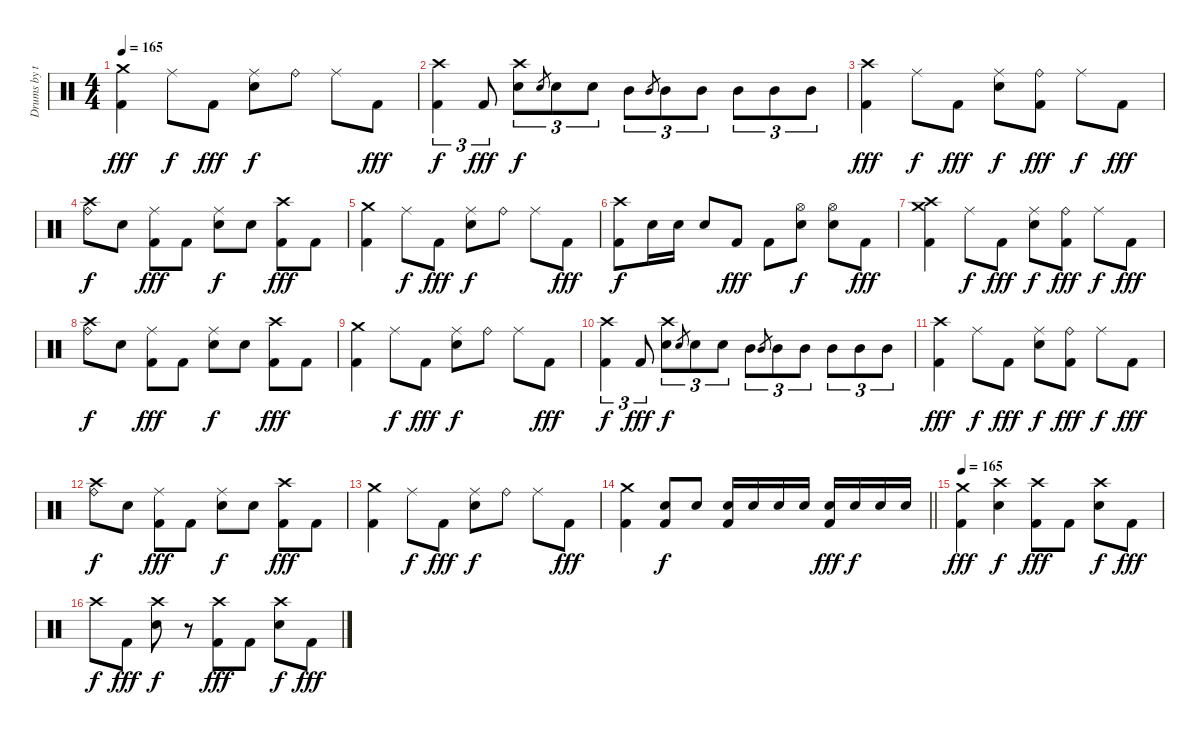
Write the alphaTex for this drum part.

\track ("Drums by terryn0" "Drums by t") {instrument percussion}
\staff {score}
\articulation defaults
\ts (4 4)
\tempo 165
\clef neutral
\ks c
("Crash medium (hit)" "Kick (hit) 2").4{dy fff} "Ride (middle)".8{dy f} "Kick (hit) 2".8{dy fff} ("Ride (middle)" "Electric Snare (hit)").8{dy f} "Ride (bell)".8 "Ride (middle)".8 "Kick (hit) 2".8{dy fff} |
("Crash high (hit)" "Kick (hit) 2").4{tu (3 2) dy f} "Kick (hit) 2".8{tu (3 2) dy fff} ("Crash high (hit)" "Electric Snare (hit)").8{tu (3 2) dy f} "Electric Snare (hit)".8{gr} "Electric Snare (hit)".8{tu (3 2)} "Electric Snare (hit)".8{tu (3 2)} "Mid Tom (hit)".8{tu (3 2)} "Mid Tom (hit)".8{gr} "Mid Tom (hit)".8{tu (3 2)} "Mid Tom (hit)".8{tu (3 2)} "Mid Tom (hit)".8{tu (3 2)} "Mid Tom (hit)".8{tu (3 2)} "Mid Tom (hit)".8{tu (3 2)} |
("Crash high (hit)" "Kick (hit) 2").4{dy fff} "Ride (middle)".8{dy f} "Kick (hit) 2".8{dy fff} ("Ride (middle)" "Electric Snare (hit)").8{dy f} ("Ride (bell)" "Kick (hit) 2").8{dy fff} "Ride (middle)".8{dy f} "Kick (hit) 2".8{dy fff} |
("Ride (bell)" "Crash high (hit)").8{dy f} "Electric Snare (hit)".8 ("Ride (middle)" "Kick (hit) 2").8{dy fff} "Kick (hit) 2".8 ("Ride (middle)" "Electric Snare (hit)").8{dy f} "Electric Snare (hit)".8 ("Crash high (hit)" "Kick (hit) 2").8{dy fff} "Kick (hit) 2".8 |
("Crash medium (hit)" "Kick (hit) 2").4 "Ride (middle)".8{dy f} "Kick (hit) 2".8{dy fff} ("Ride (middle)" "Electric Snare (hit)").8{dy f} "Ride (bell)".8 "Ride (middle)".8 "Kick (hit) 2".8{dy fff} |
("Crash high (hit)" "Kick (hit) 2").8{dy f} "Electric Snare (hit)".16 "Electric Snare (hit)".16 "Electric Snare (hit)".8 "Kick (hit) 2".8{dy fff} "Kick (hit) 2".8 ("Hi-Hat (open)" "Electric Snare (hit)").8{dy f} ("Hi-Hat (open)" "Electric Snare (hit)").8 "Kick (hit) 2".8{dy fff} |
("Crash high (hit)" "Crash medium (hit)" "Kick (hit) 2").4 "Ride (middle)".8{dy f} "Kick (hit) 2".8{dy fff} ("Ride (middle)" "Electric Snare (hit)").8{dy f} ("Ride (bell)" "Kick (hit) 2").8{dy fff} "Ride (middle)".8{dy f} "Kick (hit) 2".8{dy fff} |
("Ride (bell)" "Crash high (hit)").8{dy f} "Electric Snare (hit)".8 ("Ride (middle)" "Kick (hit) 2").8{dy fff} "Kick (hit) 2".8 ("Ride (middle)" "Electric Snare (hit)").8{dy f} "Electric Snare (hit)".8 ("Crash high (hit)" "Kick (hit) 2").8{dy fff} "Kick (hit) 2".8 |
("Crash medium (hit)" "Kick (hit) 2").4 "Ride (middle)".8{dy f} "Kick (hit) 2".8{dy fff} ("Ride (middle)" "Electric Snare (hit)").8{dy f} "Ride (bell)".8 "Ride (middle)".8 "Kick (hit) 2".8{dy fff} |
("Crash high (hit)" "Kick (hit) 2").4{tu (3 2) dy f} "Kick (hit) 2".8{tu (3 2) dy fff} ("Crash high (hit)" "Electric Snare (hit)").8{tu (3 2) dy f} "Electric Snare (hit)".8{gr} "Electric Snare (hit)".8{tu (3 2)} "Electric Snare (hit)".8{tu (3 2)} "Mid Tom (hit)".8{tu (3 2)} "Mid Tom (hit)".8{gr} "Mid Tom (hit)".8{tu (3 2)} "Mid Tom (hit)".8{tu (3 2)} "Mid Tom (hit)".8{tu (3 2)} "Mid Tom (hit)".8{tu (3 2)} "Mid Tom (hit)".8{tu (3 2)} |
("Crash high (hit)" "Kick (hit) 2").4{dy fff} "Ride (middle)".8{dy f} "Kick (hit) 2".8{dy fff} ("Ride (middle)" "Electric Snare (hit)").8{dy f} ("Ride (bell)" "Kick (hit) 2").8{dy fff} "Ride (middle)".8{dy f} "Kick (hit) 2".8{dy fff} |
("Ride (bell)" "Crash high (hit)").8{dy f} "Electric Snare (hit)".8 ("Ride (middle)" "Kick (hit) 2").8{dy fff} "Kick (hit) 2".8 ("Ride (middle)" "Electric Snare (hit)").8{dy f} "Electric Snare (hit)".8 ("Crash high (hit)" "Kick (hit) 2").8{dy fff} "Kick (hit) 2".8 |
("Crash medium (hit)" "Kick (hit) 2").4 "Ride (middle)".8{dy f} "Kick (hit) 2".8{dy fff} ("Ride (middle)" "Electric Snare (hit)").8{dy f} "Ride (bell)".8 "Ride (middle)".8 "Kick (hit) 2".8{dy fff} |
\barLineRight lightlight
("Crash medium (hit)" "Kick (hit) 2").4 ("Electric Snare (hit)" "Kick (hit) 2").8{dy f} "Electric Snare (hit)".8 ("Electric Snare (hit)" "Kick (hit) 2").16 "Electric Snare (hit)".16 "Electric Snare (hit)".16 "Electric Snare (hit)".16 ("Electric Snare (hit)" "Kick (hit) 2").16{dy fff} "Electric Snare (hit)".16{dy f} "Electric Snare (hit)".16 "Electric Snare (hit)".16 |
\tempo 165
("Crash medium (hit)" "Kick (hit) 2").4{dy fff} ("Crash high (hit)" "Electric Snare (hit)").4{dy f} ("Crash high (hit)" "Kick (hit) 2").8{dy fff} "Kick (hit) 2".8 ("Crash high (hit)" "Electric Snare (hit)").8{dy f} "Kick (hit) 2".8{dy fff} |
"Crash high (hit)".8{dy f} "Kick (hit) 2".8{dy fff} ("Crash high (hit)" "Electric Snare (hit)").8{dy f} r.8 ("Crash high (hit)" "Kick (hit) 2").8{dy fff} "Kick (hit) 2".8 ("Crash high (hit)" "Electric Snare (hit)").8{dy f} "Kick (hit) 2".8{dy fff}
